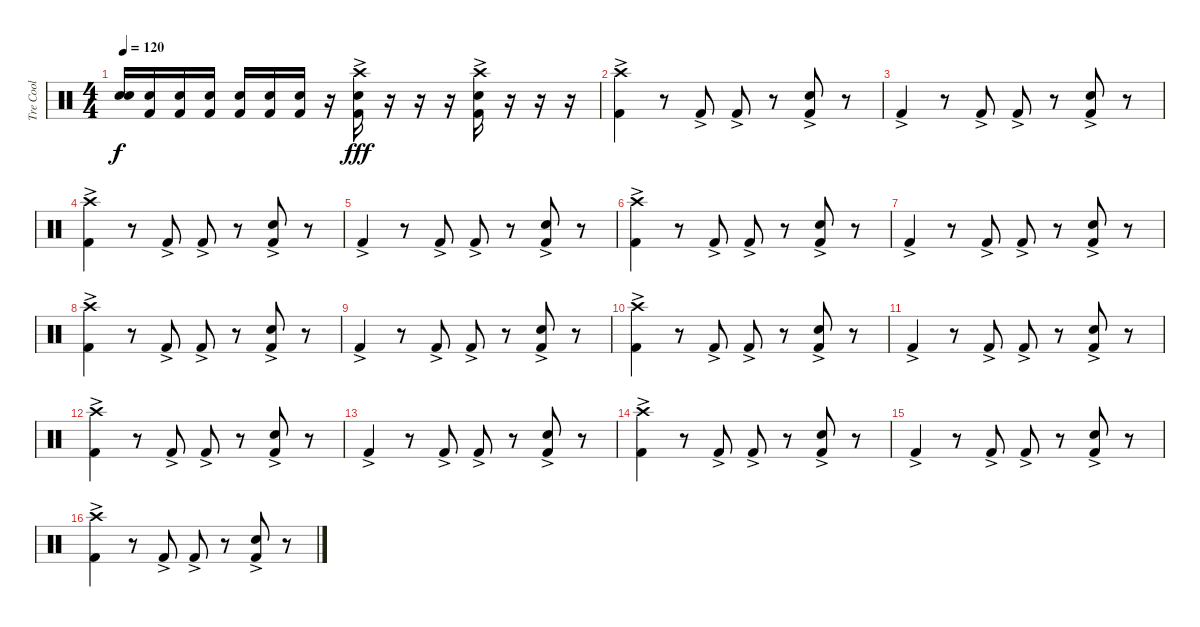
\track ("Tre Cool" "Tre Cool") {instrument percussion}
\staff {score}
\articulation defaults
\ts (4 4)
\tempo 120
\clef neutral
\ks c
("Electric Snare (hit)" "Electric Snare (hit)").16{dy f} ("Electric Snare (hit)" "Kick (hit) 2").16 ("Electric Snare (hit)" "Kick (hit) 2").16 ("Electric Snare (hit)" "Kick (hit) 2").16 ("Electric Snare (hit)" "Kick (hit) 2").16 ("Electric Snare (hit)" "Kick (hit) 2").16 ("Electric Snare (hit)" "Kick (hit) 2").16 r.16 ("Crash high (hit)"{ac} "Electric Snare (hit)"{ac} "Kick (hit) 2"{ac}).16{dy fff} r.16 r.16 r.16 ("Crash high (hit)"{ac} "Electric Snare (hit)"{ac} "Kick (hit) 2"{ac}).16 r.16 r.16 r.16 |
("Crash high (hit)"{ac} "Kick (hit) 2"{ac}).4 r.8 "Kick (hit) 2"{ac}.8 "Kick (hit) 2"{ac}.8 r.8 ("Electric Snare (hit)"{ac} "Kick (hit) 2"{ac}).8 r.8 |
"Kick (hit) 2"{ac}.4 r.8 "Kick (hit) 2"{ac}.8 "Kick (hit) 2"{ac}.8 r.8 ("Electric Snare (hit)"{ac} "Kick (hit) 2"{ac}).8 r.8 |
("Crash high (hit)" "Kick (hit) 2"{ac}).4 r.8 "Kick (hit) 2"{ac}.8 "Kick (hit) 2"{ac}.8 r.8 ("Electric Snare (hit)"{ac} "Kick (hit) 2"{ac}).8 r.8 |
"Kick (hit) 2"{ac}.4 r.8 "Kick (hit) 2"{ac}.8 "Kick (hit) 2"{ac}.8 r.8 ("Electric Snare (hit)"{ac} "Kick (hit) 2"{ac}).8 r.8 |
("Crash high (hit)" "Kick (hit) 2"{ac}).4 r.8 "Kick (hit) 2"{ac}.8 "Kick (hit) 2"{ac}.8 r.8 ("Electric Snare (hit)"{ac} "Kick (hit) 2"{ac}).8 r.8 |
"Kick (hit) 2"{ac}.4 r.8 "Kick (hit) 2"{ac}.8 "Kick (hit) 2"{ac}.8 r.8 ("Electric Snare (hit)"{ac} "Kick (hit) 2"{ac}).8 r.8 |
("Crash high (hit)" "Kick (hit) 2"{ac}).4 r.8 "Kick (hit) 2"{ac}.8 "Kick (hit) 2"{ac}.8 r.8 ("Electric Snare (hit)"{ac} "Kick (hit) 2"{ac}).8 r.8 |
"Kick (hit) 2"{ac}.4 r.8 "Kick (hit) 2"{ac}.8 "Kick (hit) 2"{ac}.8 r.8 ("Electric Snare (hit)"{ac} "Kick (hit) 2"{ac}).8 r.8 |
("Crash high (hit)" "Kick (hit) 2"{ac}).4 r.8 "Kick (hit) 2"{ac}.8 "Kick (hit) 2"{ac}.8 r.8 ("Electric Snare (hit)"{ac} "Kick (hit) 2"{ac}).8 r.8 |
"Kick (hit) 2"{ac}.4 r.8 "Kick (hit) 2"{ac}.8 "Kick (hit) 2"{ac}.8 r.8 ("Electric Snare (hit)"{ac} "Kick (hit) 2"{ac}).8 r.8 |
("Crash high (hit)" "Kick (hit) 2"{ac}).4 r.8 "Kick (hit) 2"{ac}.8 "Kick (hit) 2"{ac}.8 r.8 ("Electric Snare (hit)"{ac} "Kick (hit) 2"{ac}).8 r.8 |
"Kick (hit) 2"{ac}.4 r.8 "Kick (hit) 2"{ac}.8 "Kick (hit) 2"{ac}.8 r.8 ("Electric Snare (hit)"{ac} "Kick (hit) 2"{ac}).8 r.8 |
("Crash high (hit)" "Kick (hit) 2"{ac}).4 r.8 "Kick (hit) 2"{ac}.8 "Kick (hit) 2"{ac}.8 r.8 ("Electric Snare (hit)"{ac} "Kick (hit) 2"{ac}).8 r.8 |
"Kick (hit) 2"{ac}.4 r.8 "Kick (hit) 2"{ac}.8 "Kick (hit) 2"{ac}.8 r.8 ("Electric Snare (hit)"{ac} "Kick (hit) 2"{ac}).8 r.8 |
("Crash high (hit)" "Kick (hit) 2"{ac}).4 r.8 "Kick (hit) 2"{ac}.8 "Kick (hit) 2"{ac}.8 r.8 ("Electric Snare (hit)"{ac} "Kick (hit) 2"{ac}).8 r.8
